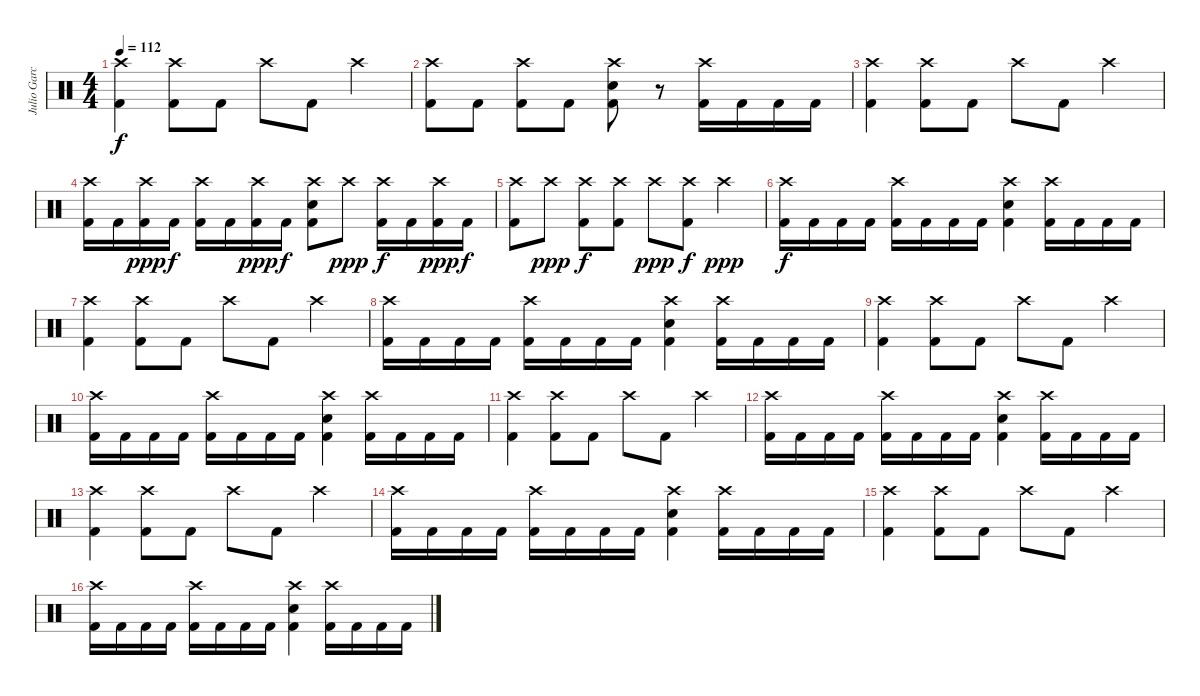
\track ("Julio Garcia" "Julio Garc") {instrument percussion}
\staff {score}
\articulation defaults
\ts (4 4)
\tempo 112
\clef neutral
\ks c
("Crash high (hit)" "Kick (hit) 2").4{dy f} ("Crash high (hit)" "Kick (hit) 2").8 "Kick (hit) 2".8 "Crash high (hit)".8 "Kick (hit) 2".8 "Crash high (hit)".4 |
("Crash high (hit)" "Kick (hit) 2").8 "Kick (hit) 2".8 ("Crash high (hit)" "Kick (hit) 2").8 "Kick (hit) 2".8 ("Crash high (hit)" "Electric Snare (hit)" "Kick (hit) 2").8 r.8 ("Crash high (hit)" "Kick (hit) 2").16 "Kick (hit) 2".16 "Kick (hit) 2".16 "Kick (hit) 2".16 |
("Crash high (hit)" "Kick (hit) 2").4 ("Crash high (hit)" "Kick (hit) 2").8 "Kick (hit) 2".8 "Crash high (hit)".8 "Kick (hit) 2".8 "Crash high (hit)".4 |
("Crash high (hit)" "Kick (hit) 2").16 "Kick (hit) 2".16 ("Crash high (hit)" "Kick (hit) 2").16{dy ppp} "Kick (hit) 2".16{dy f} ("Crash high (hit)" "Kick (hit) 2").16 "Kick (hit) 2".16 ("Crash high (hit)" "Kick (hit) 2").16{dy ppp} "Kick (hit) 2".16{dy f} ("Crash high (hit)" "Electric Snare (hit)" "Kick (hit) 2").8 "Crash high (hit)".8{dy ppp} ("Crash high (hit)" "Kick (hit) 2").16{dy f} "Kick (hit) 2".16 ("Crash high (hit)" "Kick (hit) 2").16{dy ppp} "Kick (hit) 2".16{dy f} |
("Crash high (hit)" "Kick (hit) 2").8 "Crash high (hit)".8{dy ppp} ("Crash high (hit)" "Kick (hit) 2").8{dy f} ("Crash high (hit)" "Kick (hit) 2").8 "Crash high (hit)".8{dy ppp} ("Crash high (hit)" "Kick (hit) 2").8{dy f} "Crash high (hit)".4{dy ppp} |
("Crash high (hit)" "Kick (hit) 2").16{dy f} "Kick (hit) 2".16 "Kick (hit) 2".16 "Kick (hit) 2".16 ("Crash high (hit)" "Kick (hit) 2").16 "Kick (hit) 2".16 "Kick (hit) 2".16 "Kick (hit) 2".16 ("Crash high (hit)" "Electric Snare (hit)" "Kick (hit) 2").4 ("Crash high (hit)" "Kick (hit) 2").16 "Kick (hit) 2".16 "Kick (hit) 2".16 "Kick (hit) 2".16 |
("Crash high (hit)" "Kick (hit) 2").4 ("Crash high (hit)" "Kick (hit) 2").8 "Kick (hit) 2".8 "Crash high (hit)".8 "Kick (hit) 2".8 "Crash high (hit)".4 |
("Crash high (hit)" "Kick (hit) 2").16 "Kick (hit) 2".16 "Kick (hit) 2".16 "Kick (hit) 2".16 ("Crash high (hit)" "Kick (hit) 2").16 "Kick (hit) 2".16 "Kick (hit) 2".16 "Kick (hit) 2".16 ("Crash high (hit)" "Electric Snare (hit)" "Kick (hit) 2").4 ("Crash high (hit)" "Kick (hit) 2").16 "Kick (hit) 2".16 "Kick (hit) 2".16 "Kick (hit) 2".16 |
("Crash high (hit)" "Kick (hit) 2").4 ("Crash high (hit)" "Kick (hit) 2").8 "Kick (hit) 2".8 "Crash high (hit)".8 "Kick (hit) 2".8 "Crash high (hit)".4 |
("Crash high (hit)" "Kick (hit) 2").16 "Kick (hit) 2".16 "Kick (hit) 2".16 "Kick (hit) 2".16 ("Crash high (hit)" "Kick (hit) 2").16 "Kick (hit) 2".16 "Kick (hit) 2".16 "Kick (hit) 2".16 ("Crash high (hit)" "Electric Snare (hit)" "Kick (hit) 2").4 ("Crash high (hit)" "Kick (hit) 2").16 "Kick (hit) 2".16 "Kick (hit) 2".16 "Kick (hit) 2".16 |
("Crash high (hit)" "Kick (hit) 2").4 ("Crash high (hit)" "Kick (hit) 2").8 "Kick (hit) 2".8 "Crash high (hit)".8 "Kick (hit) 2".8 "Crash high (hit)".4 |
("Crash high (hit)" "Kick (hit) 2").16 "Kick (hit) 2".16 "Kick (hit) 2".16 "Kick (hit) 2".16 ("Crash high (hit)" "Kick (hit) 2").16 "Kick (hit) 2".16 "Kick (hit) 2".16 "Kick (hit) 2".16 ("Crash high (hit)" "Electric Snare (hit)" "Kick (hit) 2").4 ("Crash high (hit)" "Kick (hit) 2").16 "Kick (hit) 2".16 "Kick (hit) 2".16 "Kick (hit) 2".16 |
("Crash high (hit)" "Kick (hit) 2").4 ("Crash high (hit)" "Kick (hit) 2").8 "Kick (hit) 2".8 "Crash high (hit)".8 "Kick (hit) 2".8 "Crash high (hit)".4 |
("Crash high (hit)" "Kick (hit) 2").16 "Kick (hit) 2".16 "Kick (hit) 2".16 "Kick (hit) 2".16 ("Crash high (hit)" "Kick (hit) 2").16 "Kick (hit) 2".16 "Kick (hit) 2".16 "Kick (hit) 2".16 ("Crash high (hit)" "Electric Snare (hit)" "Kick (hit) 2").4 ("Crash high (hit)" "Kick (hit) 2").16 "Kick (hit) 2".16 "Kick (hit) 2".16 "Kick (hit) 2".16 |
("Crash high (hit)" "Kick (hit) 2").4 ("Crash high (hit)" "Kick (hit) 2").8 "Kick (hit) 2".8 "Crash high (hit)".8 "Kick (hit) 2".8 "Crash high (hit)".4 |
("Crash high (hit)" "Kick (hit) 2").16 "Kick (hit) 2".16 "Kick (hit) 2".16 "Kick (hit) 2".16 ("Crash high (hit)" "Kick (hit) 2").16 "Kick (hit) 2".16 "Kick (hit) 2".16 "Kick (hit) 2".16 ("Crash high (hit)" "Electric Snare (hit)" "Kick (hit) 2").4 ("Crash high (hit)" "Kick (hit) 2").16 "Kick (hit) 2".16 "Kick (hit) 2".16 "Kick (hit) 2".16
